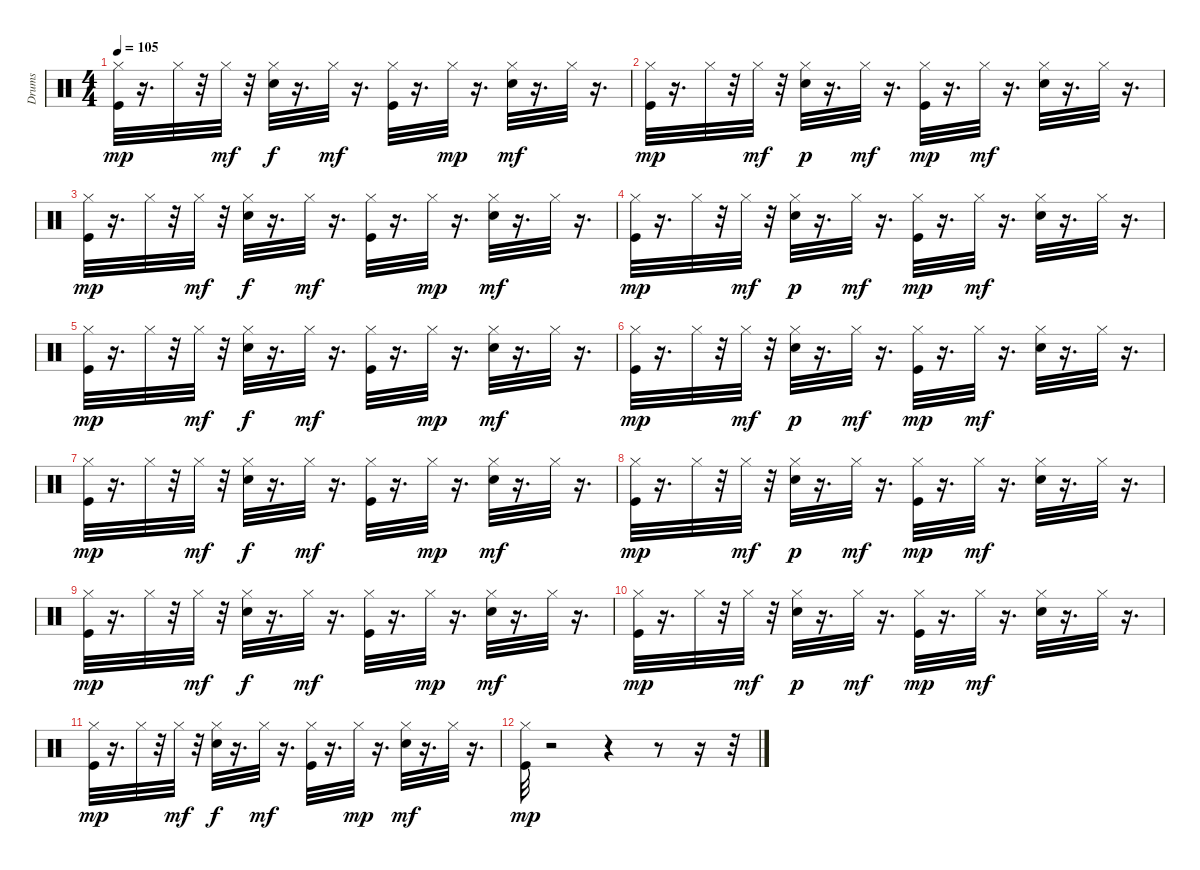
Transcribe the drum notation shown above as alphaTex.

\track ("Drums" "Drums") {instrument percussion}
\staff {score}
\articulation defaults
\ts (4 4)
\tempo 105
\clef neutral
\ks c
("Kick (hit)" "Hi-Hat (closed)").32{dy mp} r.16{d} "Hi-Hat (closed)".32 r.32 "Hi-Hat (closed)".32{dy mf} r.32 ("Snare (hit) 2" "Hi-Hat (closed)").32{dy f} r.16{d} "Hi-Hat (closed)".32{dy mf} r.16{d} ("Kick (hit)" "Hi-Hat (closed)").32 r.16{d} "Hi-Hat (closed)".32{dy mp} r.16{d} ("Snare (hit) 2" "Hi-Hat (closed)").32{dy mf} r.16{d} "Hi-Hat (closed)".32 r.16{d} |
("Kick (hit)" "Hi-Hat (closed)").32{dy mp} r.16{d} "Hi-Hat (closed)".32 r.32 "Hi-Hat (closed)".32{dy mf} r.32 ("Snare (hit) 2" "Hi-Hat (closed)").32{dy p} r.16{d} "Hi-Hat (closed)".32{dy mf} r.16{d} ("Kick (hit)" "Hi-Hat (closed)").32{dy mp} r.16{d} "Hi-Hat (closed)".32{dy mf} r.16{d} ("Snare (hit) 2" "Hi-Hat (closed)").32 r.16{d} "Hi-Hat (closed)".32 r.16{d} |
("Kick (hit)" "Hi-Hat (closed)").32{dy mp} r.16{d} "Hi-Hat (closed)".32 r.32 "Hi-Hat (closed)".32{dy mf} r.32 ("Snare (hit) 2" "Hi-Hat (closed)").32{dy f} r.16{d} "Hi-Hat (closed)".32{dy mf} r.16{d} ("Kick (hit)" "Hi-Hat (closed)").32 r.16{d} "Hi-Hat (closed)".32{dy mp} r.16{d} ("Snare (hit) 2" "Hi-Hat (closed)").32{dy mf} r.16{d} "Hi-Hat (closed)".32 r.16{d} |
("Kick (hit)" "Hi-Hat (closed)").32{dy mp} r.16{d} "Hi-Hat (closed)".32 r.32 "Hi-Hat (closed)".32{dy mf} r.32 ("Snare (hit) 2" "Hi-Hat (closed)").32{dy p} r.16{d} "Hi-Hat (closed)".32{dy mf} r.16{d} ("Kick (hit)" "Hi-Hat (closed)").32{dy mp} r.16{d} "Hi-Hat (closed)".32{dy mf} r.16{d} ("Snare (hit) 2" "Hi-Hat (closed)").32 r.16{d} "Hi-Hat (closed)".32 r.16{d} |
("Kick (hit)" "Hi-Hat (closed)").32{dy mp} r.16{d} "Hi-Hat (closed)".32 r.32 "Hi-Hat (closed)".32{dy mf} r.32 ("Snare (hit) 2" "Hi-Hat (closed)").32{dy f} r.16{d} "Hi-Hat (closed)".32{dy mf} r.16{d} ("Kick (hit)" "Hi-Hat (closed)").32 r.16{d} "Hi-Hat (closed)".32{dy mp} r.16{d} ("Snare (hit) 2" "Hi-Hat (closed)").32{dy mf} r.16{d} "Hi-Hat (closed)".32 r.16{d} |
("Kick (hit)" "Hi-Hat (closed)").32{dy mp} r.16{d} "Hi-Hat (closed)".32 r.32 "Hi-Hat (closed)".32{dy mf} r.32 ("Snare (hit) 2" "Hi-Hat (closed)").32{dy p} r.16{d} "Hi-Hat (closed)".32{dy mf} r.16{d} ("Kick (hit)" "Hi-Hat (closed)").32{dy mp} r.16{d} "Hi-Hat (closed)".32{dy mf} r.16{d} ("Snare (hit) 2" "Hi-Hat (closed)").32 r.16{d} "Hi-Hat (closed)".32 r.16{d} |
("Kick (hit)" "Hi-Hat (closed)").32{dy mp} r.16{d} "Hi-Hat (closed)".32 r.32 "Hi-Hat (closed)".32{dy mf} r.32 ("Snare (hit) 2" "Hi-Hat (closed)").32{dy f} r.16{d} "Hi-Hat (closed)".32{dy mf} r.16{d} ("Kick (hit)" "Hi-Hat (closed)").32 r.16{d} "Hi-Hat (closed)".32{dy mp} r.16{d} ("Snare (hit) 2" "Hi-Hat (closed)").32{dy mf} r.16{d} "Hi-Hat (closed)".32 r.16{d} |
("Kick (hit)" "Hi-Hat (closed)").32{dy mp} r.16{d} "Hi-Hat (closed)".32 r.32 "Hi-Hat (closed)".32{dy mf} r.32 ("Snare (hit) 2" "Hi-Hat (closed)").32{dy p} r.16{d} "Hi-Hat (closed)".32{dy mf} r.16{d} ("Kick (hit)" "Hi-Hat (closed)").32{dy mp} r.16{d} "Hi-Hat (closed)".32{dy mf} r.16{d} ("Snare (hit) 2" "Hi-Hat (closed)").32 r.16{d} "Hi-Hat (closed)".32 r.16{d} |
("Kick (hit)" "Hi-Hat (closed)").32{dy mp} r.16{d} "Hi-Hat (closed)".32 r.32 "Hi-Hat (closed)".32{dy mf} r.32 ("Snare (hit) 2" "Hi-Hat (closed)").32{dy f} r.16{d} "Hi-Hat (closed)".32{dy mf} r.16{d} ("Kick (hit)" "Hi-Hat (closed)").32 r.16{d} "Hi-Hat (closed)".32{dy mp} r.16{d} ("Snare (hit) 2" "Hi-Hat (closed)").32{dy mf} r.16{d} "Hi-Hat (closed)".32 r.16{d} |
("Kick (hit)" "Hi-Hat (closed)").32{dy mp} r.16{d} "Hi-Hat (closed)".32 r.32 "Hi-Hat (closed)".32{dy mf} r.32 ("Snare (hit) 2" "Hi-Hat (closed)").32{dy p} r.16{d} "Hi-Hat (closed)".32{dy mf} r.16{d} ("Kick (hit)" "Hi-Hat (closed)").32{dy mp} r.16{d} "Hi-Hat (closed)".32{dy mf} r.16{d} ("Snare (hit) 2" "Hi-Hat (closed)").32 r.16{d} "Hi-Hat (closed)".32 r.16{d} |
("Kick (hit)" "Hi-Hat (closed)").32{dy mp} r.16{d} "Hi-Hat (closed)".32 r.32 "Hi-Hat (closed)".32{dy mf} r.32 ("Snare (hit) 2" "Hi-Hat (closed)").32{dy f} r.16{d} "Hi-Hat (closed)".32{dy mf} r.16{d} ("Kick (hit)" "Hi-Hat (closed)").32 r.16{d} "Hi-Hat (closed)".32{dy mp} r.16{d} ("Snare (hit) 2" "Hi-Hat (closed)").32{dy mf} r.16{d} "Hi-Hat (closed)".32 r.16{d} |
("Kick (hit)" "Hi-Hat (closed)").32{dy mp} r.2 r.4 r.8 r.16 r.32
